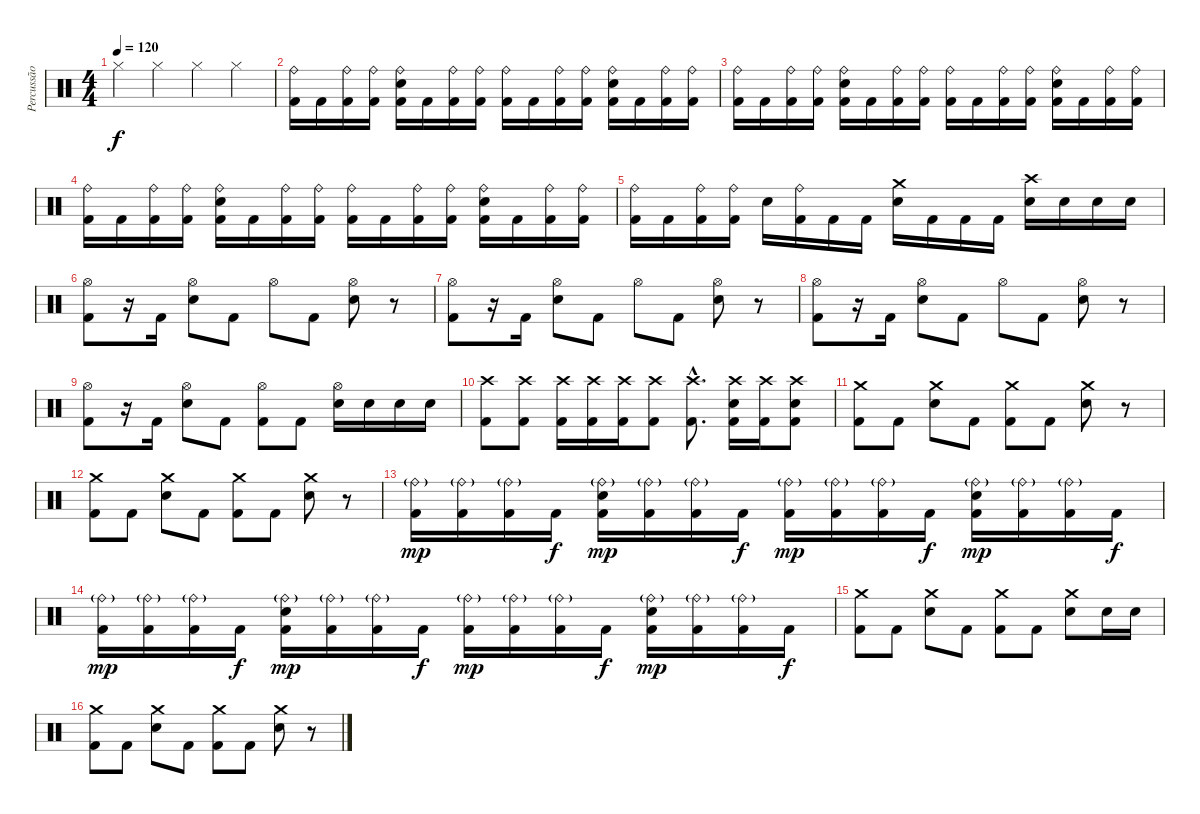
\track ("Percussão" "Percussão") {instrument percussion}
\staff {score}
\articulation defaults
\ts (4 4)
\tempo 120
\clef neutral
\ks c "Hi-Hat (closed)".4{dy f} "Hi-Hat (closed)".4 "Hi-Hat (closed)".4 "Hi-Hat (closed)".4
|
("Kick (hit) 2" "Ride (bell)").16 "Kick (hit) 2".16 ("Kick (hit) 2" "Ride (bell)").16 ("Kick (hit) 2" "Ride (bell)").16 ("Kick (hit) 2" "Snare (hit) 2" "Ride (bell)").16 "Kick (hit) 2".16 ("Kick (hit) 2" "Ride (bell)").16 ("Kick (hit) 2" "Ride (bell)").16 ("Kick (hit) 2" "Ride (bell)").16 "Kick (hit) 2".16 ("Kick (hit) 2" "Ride (bell)").16 ("Kick (hit) 2" "Ride (bell)").16 ("Kick (hit) 2" "Snare (hit) 2" "Ride (bell)").16 "Kick (hit) 2".16 ("Kick (hit) 2" "Ride (bell)").16 ("Kick (hit) 2" "Ride (bell)").16 |
("Kick (hit) 2" "Ride (bell)").16 "Kick (hit) 2".16 ("Kick (hit) 2" "Ride (bell)").16 ("Kick (hit) 2" "Ride (bell)").16 ("Kick (hit) 2" "Snare (hit) 2" "Ride (bell)").16 "Kick (hit) 2".16 ("Kick (hit) 2" "Ride (bell)").16 ("Kick (hit) 2" "Ride (bell)").16 ("Kick (hit) 2" "Ride (bell)").16 "Kick (hit) 2".16 ("Kick (hit) 2" "Ride (bell)").16 ("Kick (hit) 2" "Ride (bell)").16 ("Kick (hit) 2" "Snare (hit) 2" "Ride (bell)").16 "Kick (hit) 2".16 ("Kick (hit) 2" "Ride (bell)").16 ("Kick (hit) 2" "Ride (bell)").16 |
("Kick (hit) 2" "Ride (bell)").16 "Kick (hit) 2".16 ("Kick (hit) 2" "Ride (bell)").16 ("Kick (hit) 2" "Ride (bell)").16 ("Kick (hit) 2" "Snare (hit) 2" "Ride (bell)").16 "Kick (hit) 2".16 ("Kick (hit) 2" "Ride (bell)").16 ("Kick (hit) 2" "Ride (bell)").16 ("Kick (hit) 2" "Ride (bell)").16 "Kick (hit) 2".16 ("Kick (hit) 2" "Ride (bell)").16 ("Kick (hit) 2" "Ride (bell)").16 ("Kick (hit) 2" "Snare (hit) 2" "Ride (bell)").16 "Kick (hit) 2".16 ("Kick (hit) 2" "Ride (bell)").16 ("Kick (hit) 2" "Ride (bell)").16 |
("Kick (hit) 2" "Ride (bell)").16 "Kick (hit) 2".16 ("Kick (hit) 2" "Ride (bell)").16 ("Kick (hit) 2" "Ride (bell)").16 "Snare (hit) 2".16 ("Kick (hit) 2" "Ride (bell)").16 "Kick (hit) 2".16 "Kick (hit) 2".16 ("Snare (hit) 2" "Crash medium (hit)").16 "Kick (hit) 2".16 "Kick (hit) 2".16 "Kick (hit) 2".16 ("Snare (hit) 2" "Crash high (hit)").16 "Snare (hit) 2".16 "Snare (hit) 2".16 "Snare (hit) 2".16 |
("Kick (hit) 2" "Hi-Hat (open)").8 r.16 "Kick (hit) 2".16 ("Snare (hit) 2" "Hi-Hat (open)").8 "Kick (hit) 2".8 "Hi-Hat (open)".8 "Kick (hit) 2".8 ("Snare (hit) 2" "Hi-Hat (open)").8 r.8 |
("Kick (hit) 2" "Hi-Hat (open)").8 r.16 "Kick (hit) 2".16 ("Snare (hit) 2" "Hi-Hat (open)").8 "Kick (hit) 2".8 "Hi-Hat (open)".8 "Kick (hit) 2".8 ("Snare (hit) 2" "Hi-Hat (open)").8 r.8 |
("Kick (hit) 2" "Hi-Hat (open)").8 r.16 "Kick (hit) 2".16 ("Snare (hit) 2" "Hi-Hat (open)").8 "Kick (hit) 2".8 "Hi-Hat (open)".8 "Kick (hit) 2".8 ("Snare (hit) 2" "Hi-Hat (open)").8 r.8 |
("Kick (hit) 2" "Hi-Hat (open)").8 r.16 "Kick (hit) 2".16 ("Snare (hit) 2" "Hi-Hat (open)").8 "Kick (hit) 2".8 ("Kick (hit) 2" "Hi-Hat (open)").8 "Kick (hit) 2".8 ("Snare (hit) 2" "Hi-Hat (open)").16 "Snare (hit) 2".16 "Snare (hit) 2".16 "Snare (hit) 2".16 |
("Kick (hit) 2" "Crash high (hit)").8 ("Kick (hit) 2" "Crash high (hit)").8 ("Kick (hit) 2" "Crash high (hit)").16 ("Kick (hit) 2" "Crash high (hit)").16 ("Kick (hit) 2" "Crash high (hit)").16 ("Kick (hit) 2" "Crash high (hit)").8 ("Kick (hit) 2"{hac} "Crash high (hit)"{hac}).8{d} ("Kick (hit) 2" "Snare (hit) 2" "Crash high (hit)").16 ("Kick (hit) 2" "Crash high (hit)").16 ("Kick (hit) 2" "Snare (hit) 2" "Crash high (hit)").8 |
("Kick (hit) 2" "Crash medium (hit)").8 "Kick (hit) 2".8 ("Snare (hit) 2" "Crash medium (hit)").8 "Kick (hit) 2".8 ("Kick (hit) 2" "Crash medium (hit)").8 "Kick (hit) 2".8 ("Snare (hit) 2" "Crash medium (hit)").8 r.8 |
("Kick (hit) 2" "Crash medium (hit)").8 "Kick (hit) 2".8 ("Snare (hit) 2" "Crash medium (hit)").8 "Kick (hit) 2".8 ("Kick (hit) 2" "Crash medium (hit)").8 "Kick (hit) 2".8 ("Snare (hit) 2" "Crash medium (hit)").8 r.8 |
("Kick (hit) 2" "Ride (bell)"{g}).16{dy mp} ("Kick (hit) 2" "Ride (bell)"{g}).16 ("Kick (hit) 2" "Ride (bell)"{g}).16 "Kick (hit) 2".16{dy f} ("Kick (hit) 2" "Snare (hit) 2" "Ride (bell)"{g}).16{dy mp} ("Kick (hit) 2" "Ride (bell)"{g}).16 ("Kick (hit) 2" "Ride (bell)"{g}).16 "Kick (hit) 2".16{dy f} ("Kick (hit) 2" "Ride (bell)"{g}).16{dy mp} ("Kick (hit) 2" "Ride (bell)"{g}).16 ("Kick (hit) 2" "Ride (bell)"{g}).16 "Kick (hit) 2".16{dy f} ("Kick (hit) 2" "Snare (hit) 2" "Ride (bell)"{g}).16{dy mp} ("Kick (hit) 2" "Ride (bell)"{g}).16 ("Kick (hit) 2" "Ride (bell)"{g}).16 "Kick (hit) 2".16{dy f} |
("Kick (hit) 2" "Ride (bell)"{g}).16{dy mp} ("Kick (hit) 2" "Ride (bell)"{g}).16 ("Kick (hit) 2" "Ride (bell)"{g}).16 "Kick (hit) 2".16{dy f} ("Kick (hit) 2" "Snare (hit) 2" "Ride (bell)"{g}).16{dy mp} ("Kick (hit) 2" "Ride (bell)"{g}).16 ("Kick (hit) 2" "Ride (bell)"{g}).16 "Kick (hit) 2".16{dy f} ("Kick (hit) 2" "Ride (bell)"{g}).16{dy mp} ("Kick (hit) 2" "Ride (bell)"{g}).16 ("Kick (hit) 2" "Ride (bell)"{g}).16 "Kick (hit) 2".16{dy f} ("Kick (hit) 2" "Snare (hit) 2" "Ride (bell)"{g}).16{dy mp} ("Kick (hit) 2" "Ride (bell)"{g}).16 ("Kick (hit) 2" "Ride (bell)"{g}).16 "Kick (hit) 2".16{dy f} |
("Kick (hit) 2" "Crash medium (hit)").8 "Kick (hit) 2".8 ("Snare (hit) 2" "Crash medium (hit)").8 "Kick (hit) 2".8 ("Kick (hit) 2" "Crash medium (hit)").8 "Kick (hit) 2".8 ("Snare (hit) 2" "Crash medium (hit)").8 "Snare (hit) 2".16 "Snare (hit) 2".16 |
("Kick (hit) 2" "Crash medium (hit)").8 "Kick (hit) 2".8 ("Snare (hit) 2" "Crash medium (hit)").8 "Kick (hit) 2".8 ("Kick (hit) 2" "Crash medium (hit)").8 "Kick (hit) 2".8 ("Snare (hit) 2" "Crash medium (hit)").8 r.8
